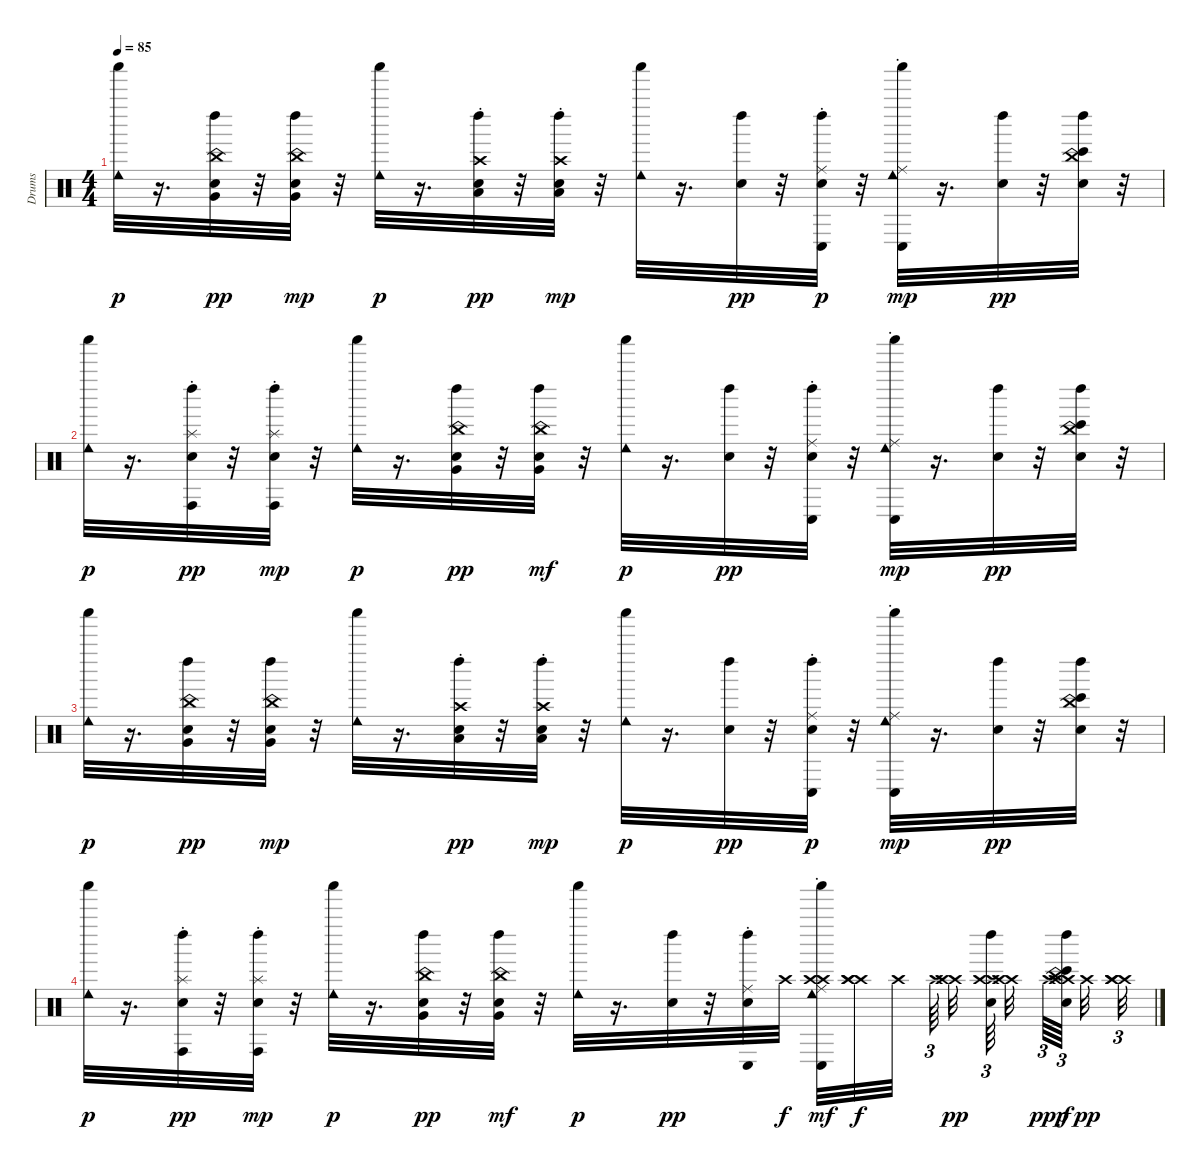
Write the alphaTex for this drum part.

\track ("Drums" "Drums") {instrument percussion}
\staff {score}
\articulation defaults
\ts (4 4)
\tempo 85
\clef neutral
\ks c
("Shaker (hit)" "Cowbell low (hit)").32{dy p} r.16{d} ("China (choke)" "Very Low Tom (hit)" "Left Maraca (hit)" "Snare (hit)").32{dy pp} r.32 ("Left Maraca (hit)" "China (choke)" "Snare (hit)" "Very Low Tom (hit)").32{dy mp} r.32 ("Shaker (hit)" "Cowbell low (hit)").32{dy p} r.16{d} ("Crash high (choke)" "Low Floor Tom (hit)" "Left Maraca (hit)" "Snare (hit)").32{dy pp} r.32 ("Left Maraca (hit)" "Snare (hit)" "Crash high (choke)" "Low Floor Tom (hit)").32{dy mp} r.32 ("Cowbell low (hit)" "Shaker (hit)").32 r.16{d} ("Left Maraca (hit)" "Snare (hit)").32{dy pp} r.32 ("Conga low (hit)" "Ride (choke)" "Snare (hit)" "Left Maraca (hit)").32{dy p} r.32 ("Shaker (hit)" "Cowbell low (hit)" "Conga low (hit)" "Ride (choke)").32{dy mp} r.16{d} ("Left Maraca (hit)" "Snare (hit)").32{dy pp} r.32 ("Bongo High (hit)" "Left Maraca (hit)" "China (choke)" "Snare (hit)").32 r.32 |
("Shaker (hit)" "Cowbell low (hit)").32{dy p} r.16{d} ("Conga high (hit)" "Splash (choke)" "Snare (hit)" "Left Maraca (hit)").32{dy pp} r.32 ("Left Maraca (hit)" "Snare (hit)" "Conga high (hit)" "Splash (choke)").32{dy mp} r.32 ("Shaker (hit)" "Cowbell low (hit)").32{dy p} r.16{d} ("China (choke)" "Very Low Tom (hit)" "Left Maraca (hit)" "Snare (hit)").32{dy pp} r.32 ("Snare (hit)" "Left Maraca (hit)" "Very Low Tom (hit)" "China (choke)").32{dy mf} r.32 ("Shaker (hit)" "Cowbell low (hit)").32{dy p} r.16{d} ("Left Maraca (hit)" "Snare (hit)").32{dy pp} r.32 ("Ride (choke)" "Conga low (hit)" "Snare (hit)" "Left Maraca (hit)").32 r.32 ("Shaker (hit)" "Cowbell low (hit)" "Conga low (hit)" "Ride (choke)").32{dy mp} r.16{d} ("Left Maraca (hit)" "Snare (hit)").32{dy pp} r.32 ("Bongo High (hit)" "China (choke)" "Left Maraca (hit)" "Snare (hit)").32 r.32 |
("Shaker (hit)" "Cowbell low (hit)").32{dy p} r.16{d} ("China (choke)" "Left Maraca (hit)" "Very Low Tom (hit)" "Snare (hit)").32{dy pp} r.32 ("Left Maraca (hit)" "Snare (hit)" "China (choke)" "Very Low Tom (hit)").32{dy mp} r.32 ("Cowbell low (hit)" "Shaker (hit)").32 r.16{d} ("Crash high (choke)" "Low Floor Tom (hit)" "Left Maraca (hit)" "Snare (hit)").32{dy pp} r.32 ("Left Maraca (hit)" "Snare (hit)" "Crash high (choke)" "Low Floor Tom (hit)").32{dy mp} r.32 ("Shaker (hit)" "Cowbell low (hit)").32{dy p} r.16{d} ("Left Maraca (hit)" "Snare (hit)").32{dy pp} r.32 ("Ride (choke)" "Conga low (hit)" "Snare (hit)" "Left Maraca (hit)").32{dy p} r.32 ("Shaker (hit)" "Cowbell low (hit)" "Conga low (hit)" "Ride (choke)").32{dy mp} r.16{d} ("Snare (hit)" "Left Maraca (hit)").32{dy pp} r.32 ("Bongo High (hit)" "China (choke)" "Left Maraca (hit)" "Snare (hit)").32 r.32 |
("Shaker (hit)" "Cowbell low (hit)").32{dy p} r.16{d} ("Conga high (hit)" "Splash (choke)" "Left Maraca (hit)" "Snare (hit)").32{dy pp} r.32 ("Snare (hit)" "Left Maraca (hit)" "Conga high (hit)" "Splash (choke)").32{dy mp} r.32 ("Shaker (hit)" "Cowbell low (hit)").32{dy p} r.16{d} ("China (choke)" "Very Low Tom (hit)" "Snare (hit)" "Left Maraca (hit)").32{dy pp} r.32 ("Left Maraca (hit)" "Snare (hit)" "China (choke)" "Very Low Tom (hit)").32{dy mf} r.32 ("Shaker (hit)" "Cowbell low (hit)").32{dy p} r.16{d} ("Left Maraca (hit)" "Snare (hit)").32{dy pp} r.32 ("Conga low (hit)" "Ride (choke)" "Left Maraca (hit)" "Snare (hit)").32 "Crash high (hit)".32{dy f} ("Crash high (hit)" "Crash high (hit)" "Shaker (hit)" "Cowbell low (hit)" "Conga low (hit)" "Ride (choke)").32{dy mf} ("Crash high (hit)" "Crash high (hit)" "Crash high (hit)").32{dy f} "Crash high (hit)".32 "Crash high (hit)".64{tu (3 2)} ("Crash high (hit)" "Crash high (hit)").32{dy pp} ("Crash high (hit)" "Left Maraca (hit)" "Snare (hit)" "Crash high (hit)").64{tu (3 2)} ("Crash high (hit)" "Crash high (hit)").32 "Crash high (hit)".64{tu (3 2) dy ppp} ("Crash high (hit)" "Bongo High (hit)" "China (choke)" "Left Maraca (hit)" "Snare (hit)" "Crash high (hit)").64{tu (3 2) dy f} "Crash high (hit)".32{dy pp} ("Crash high (hit)" "Crash high (hit)" "Crash high (hit)").32{tu (3 2)}
